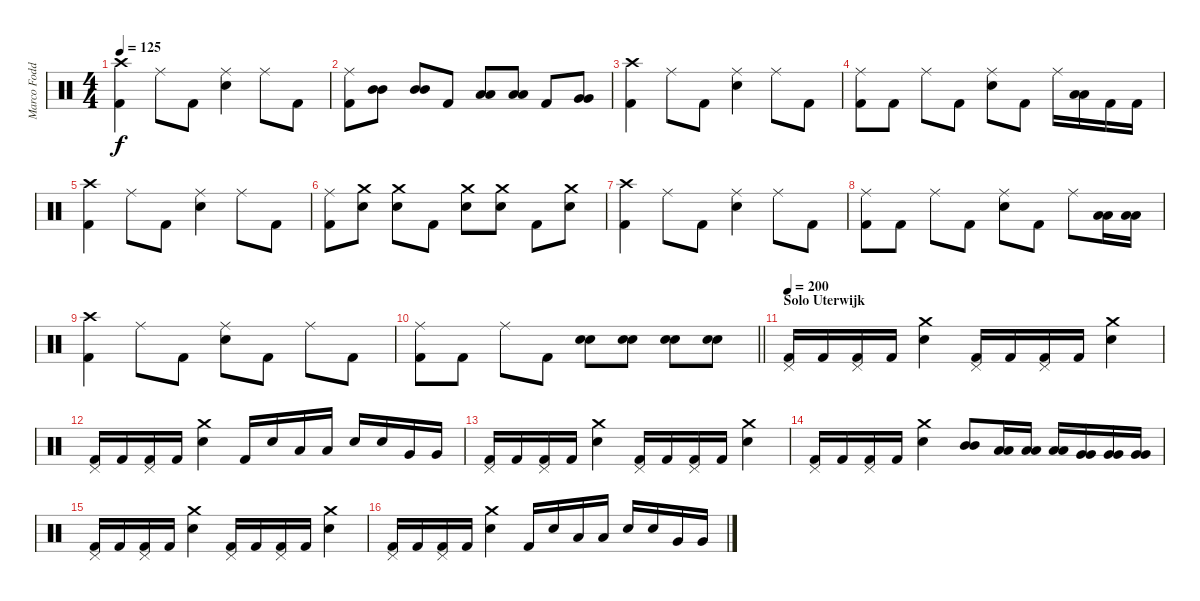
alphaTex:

\track ("Marco Foddis " "Marco Fodd") {instrument percussion}
\staff {score}
\articulation defaults
\ts (4 4)
\tempo 125
\clef neutral
\ks c
("Crash high (hit)" "Kick (hit) 2").4{dy f} "Ride (middle)".8 "Kick (hit) 2".8 ("Ride (middle)" "Electric Snare (hit)").4 "Ride (middle)".8 "Kick (hit) 2".8 |
("Ride (middle)" "Kick (hit) 2").8 ("Mid Tom (hit)" "Mid Tom (hit)").8 ("Mid Tom (hit)" "Mid Tom (hit)").8 "Kick (hit) 2".8 ("Low Tom (hit)" "Low Tom (hit)").8 ("Low Tom (hit)" "Low Tom (hit)").8 "Kick (hit) 2".8 ("Very Low Tom (hit)" "Very Low Tom (hit)").8 |
("Crash high (hit)" "Kick (hit) 2").4 "Ride (middle)".8 "Kick (hit) 2".8 ("Ride (middle)" "Electric Snare (hit)").4 "Ride (middle)".8 "Kick (hit) 2".8 |
("Ride (middle)" "Kick (hit) 2").8 "Kick (hit) 2".8 "Ride (middle)".8 "Kick (hit) 2".8 ("Ride (middle)" "Electric Snare (hit)").8 "Kick (hit) 2".8 "Ride (middle)".16 ("Low Tom (hit)" "Low Tom (hit)").16 "Kick (hit) 2".16 "Kick (hit) 2".16 |
("Crash high (hit)" "Kick (hit) 2").4 "Ride (middle)".8 "Kick (hit) 2".8 ("Ride (middle)" "Electric Snare (hit)").4 "Ride (middle)".8 "Kick (hit) 2".8 |
("Ride (middle)" "Kick (hit) 2").8 ("Crash medium (hit)" "Electric Snare (hit)").8 ("Crash medium (hit)" "Electric Snare (hit)").8 "Kick (hit) 2".8 ("Crash medium (hit)" "Electric Snare (hit)").8 ("Crash medium (hit)" "Electric Snare (hit)").8 "Kick (hit) 2".8 ("Crash medium (hit)" "Electric Snare (hit)").8 |
("Crash high (hit)" "Kick (hit) 2").4 "Ride (middle)".8 "Kick (hit) 2".8 ("Ride (middle)" "Electric Snare (hit)").4 "Ride (middle)".8 "Kick (hit) 2".8 |
("Ride (middle)" "Kick (hit) 2").8 "Kick (hit) 2".8 "Ride (middle)".8 "Kick (hit) 2".8 ("Ride (middle)" "Electric Snare (hit)").8 "Kick (hit) 2".8 "Ride (middle)".8 ("Low Tom (hit)" "Low Tom (hit)").16 ("Low Tom (hit)" "Low Tom (hit)").16 |
("Crash high (hit)" "Kick (hit) 2").4 "Ride (middle)".8 "Kick (hit) 2".8 ("Ride (middle)" "Electric Snare (hit)").8 "Kick (hit) 2".8 "Ride (middle)".8 "Kick (hit) 2".8 |
\barLineRight lightlight
("Ride (middle)" "Kick (hit) 2").8 "Kick (hit) 2".8 "Ride (middle)".8 "Kick (hit) 2".8 ("Electric Snare (hit)" "Electric Snare (hit)").8 ("Electric Snare (hit)" "Electric Snare (hit)").8 ("Electric Snare (hit)" "Electric Snare (hit)").8 ("Electric Snare (hit)" "Electric Snare (hit)").8 |
\section ("" "Solo Uterwijk")
\tempo 200
("Pedal Hi-Hat (hit)" "Kick (hit) 2").16 "Kick (hit) 2".16 ("Pedal Hi-Hat (hit)" "Kick (hit) 2").16 "Kick (hit) 2".16 ("Crash medium (hit)" "Electric Snare (hit)").4 ("Pedal Hi-Hat (hit)" "Kick (hit) 2").16 "Kick (hit) 2".16 ("Pedal Hi-Hat (hit)" "Kick (hit) 2").16 "Kick (hit) 2".16 ("Crash medium (hit)" "Electric Snare (hit)").4 |
("Pedal Hi-Hat (hit)" "Kick (hit) 2").16 "Kick (hit) 2".16 ("Pedal Hi-Hat (hit)" "Kick (hit) 2").16 "Kick (hit) 2".16 ("Crash medium (hit)" "Electric Snare (hit)").4 "Kick (hit) 2".16 "Electric Snare (hit)".16 "Low Tom (hit)".16 "Low Tom (hit)".16 "Electric Snare (hit)".16 "Electric Snare (hit)".16 "Very Low Tom (hit)".16 "Very Low Tom (hit)".16 |
("Pedal Hi-Hat (hit)" "Kick (hit) 2").16 "Kick (hit) 2".16 ("Pedal Hi-Hat (hit)" "Kick (hit) 2").16 "Kick (hit) 2".16 ("Crash medium (hit)" "Electric Snare (hit)").4 ("Pedal Hi-Hat (hit)" "Kick (hit) 2").16 "Kick (hit) 2".16 ("Pedal Hi-Hat (hit)" "Kick (hit) 2").16 "Kick (hit) 2".16 ("Crash medium (hit)" "Electric Snare (hit)").4 |
("Pedal Hi-Hat (hit)" "Kick (hit) 2").16 "Kick (hit) 2".16 ("Pedal Hi-Hat (hit)" "Kick (hit) 2").16 "Kick (hit) 2".16 ("Crash medium (hit)" "Electric Snare (hit)").4 ("Mid Tom (hit)" "Mid Tom (hit)").8 ("Low Tom (hit)" "Low Tom (hit)").16 ("Low Tom (hit)" "Low Tom (hit)").16 ("Low Tom (hit)" "Low Tom (hit)").16 ("Very Low Tom (hit)" "Very Low Tom (hit)").16 ("Very Low Tom (hit)" "Very Low Tom (hit)").16 ("Very Low Tom (hit)" "Very Low Tom (hit)").16 |
("Pedal Hi-Hat (hit)" "Kick (hit) 2").16 "Kick (hit) 2".16 ("Pedal Hi-Hat (hit)" "Kick (hit) 2").16 "Kick (hit) 2".16 ("Crash medium (hit)" "Electric Snare (hit)").4 ("Pedal Hi-Hat (hit)" "Kick (hit) 2").16 "Kick (hit) 2".16 ("Pedal Hi-Hat (hit)" "Kick (hit) 2").16 "Kick (hit) 2".16 ("Crash medium (hit)" "Electric Snare (hit)").4 |
("Pedal Hi-Hat (hit)" "Kick (hit) 2").16 "Kick (hit) 2".16 ("Pedal Hi-Hat (hit)" "Kick (hit) 2").16 "Kick (hit) 2".16 ("Crash medium (hit)" "Electric Snare (hit)").4 "Kick (hit) 2".16 "Electric Snare (hit)".16 "Low Tom (hit)".16 "Low Tom (hit)".16 "Electric Snare (hit)".16 "Electric Snare (hit)".16 "Very Low Tom (hit)".16 "Very Low Tom (hit)".16
